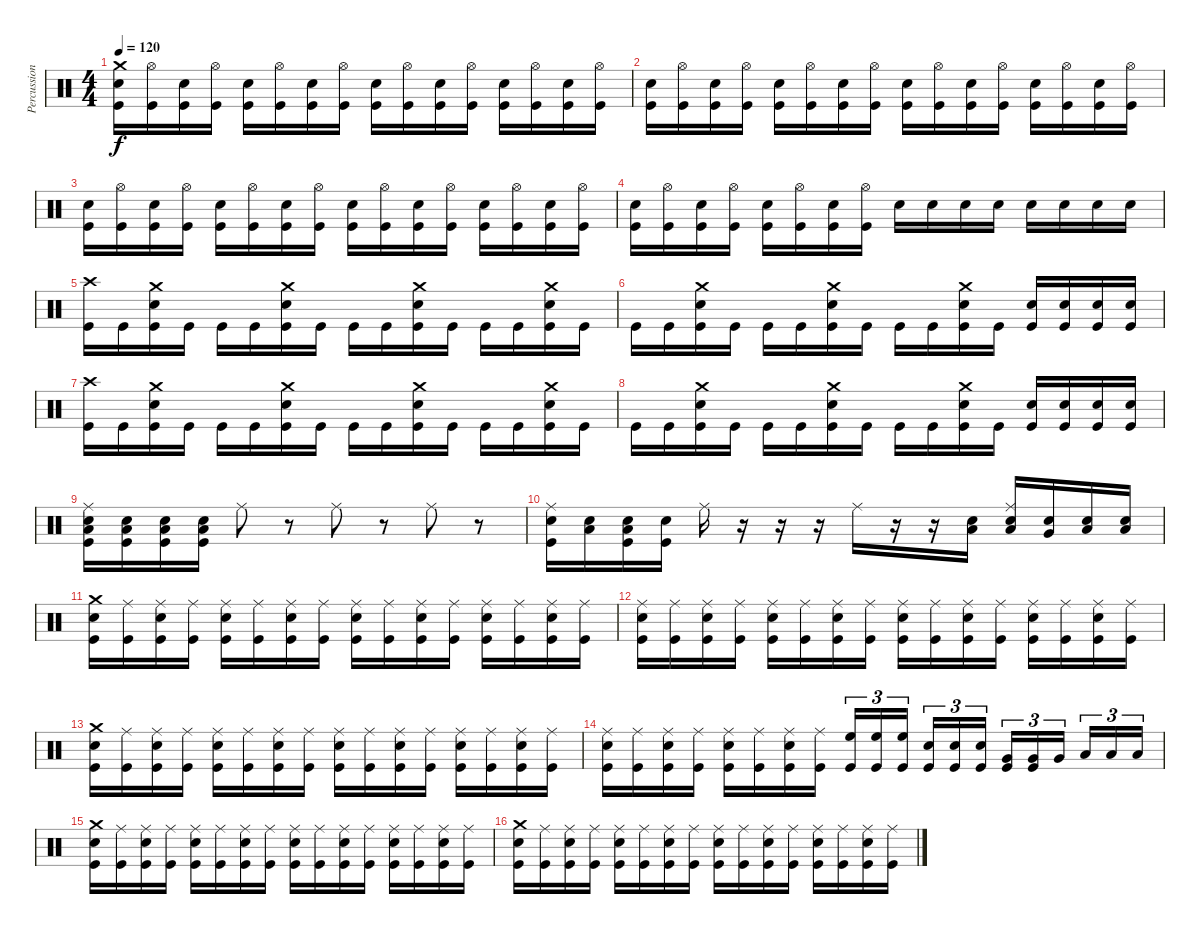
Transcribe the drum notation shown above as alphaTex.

\track ("Percussions" "Percussion") {instrument percussion}
\staff {score}
\articulation defaults
\ts (4 4)
\tempo 120
\clef neutral
\ks c
("Crash medium (hit)" "Electric Snare (hit)" "Kick (hit)").16{dy f} ("Hi-Hat (open)" "Kick (hit)").16 ("Electric Snare (hit)" "Kick (hit)").16 ("Hi-Hat (open)" "Kick (hit)").16 ("Electric Snare (hit)" "Kick (hit)").16 ("Hi-Hat (open)" "Kick (hit)").16 ("Electric Snare (hit)" "Kick (hit)").16 ("Hi-Hat (open)" "Kick (hit)").16 ("Electric Snare (hit)" "Kick (hit)").16 ("Hi-Hat (open)" "Kick (hit)").16 ("Electric Snare (hit)" "Kick (hit)").16 ("Hi-Hat (open)" "Kick (hit)").16 ("Electric Snare (hit)" "Kick (hit)").16 ("Hi-Hat (open)" "Kick (hit)").16 ("Electric Snare (hit)" "Kick (hit)").16 ("Hi-Hat (open)" "Kick (hit)").16 |
("Electric Snare (hit)" "Kick (hit)").16 ("Hi-Hat (open)" "Kick (hit)").16 ("Electric Snare (hit)" "Kick (hit)").16 ("Hi-Hat (open)" "Kick (hit)").16 ("Electric Snare (hit)" "Kick (hit)").16 ("Hi-Hat (open)" "Kick (hit)").16 ("Electric Snare (hit)" "Kick (hit)").16 ("Hi-Hat (open)" "Kick (hit)").16 ("Electric Snare (hit)" "Kick (hit)").16 ("Hi-Hat (open)" "Kick (hit)").16 ("Electric Snare (hit)" "Kick (hit)").16 ("Hi-Hat (open)" "Kick (hit)").16 ("Electric Snare (hit)" "Kick (hit)").16 ("Hi-Hat (open)" "Kick (hit)").16 ("Electric Snare (hit)" "Kick (hit)").16 ("Hi-Hat (open)" "Kick (hit)").16 |
("Electric Snare (hit)" "Kick (hit)").16 ("Hi-Hat (open)" "Kick (hit)").16 ("Electric Snare (hit)" "Kick (hit)").16 ("Hi-Hat (open)" "Kick (hit)").16 ("Electric Snare (hit)" "Kick (hit)").16 ("Hi-Hat (open)" "Kick (hit)").16 ("Electric Snare (hit)" "Kick (hit)").16 ("Hi-Hat (open)" "Kick (hit)").16 ("Electric Snare (hit)" "Kick (hit)").16 ("Hi-Hat (open)" "Kick (hit)").16 ("Electric Snare (hit)" "Kick (hit)").16 ("Hi-Hat (open)" "Kick (hit)").16 ("Electric Snare (hit)" "Kick (hit)").16 ("Hi-Hat (open)" "Kick (hit)").16 ("Electric Snare (hit)" "Kick (hit)").16 ("Hi-Hat (open)" "Kick (hit)").16 |
("Electric Snare (hit)" "Kick (hit)").16 ("Hi-Hat (open)" "Kick (hit)").16 ("Electric Snare (hit)" "Kick (hit)").16 ("Hi-Hat (open)" "Kick (hit)").16 ("Electric Snare (hit)" "Kick (hit)").16 ("Hi-Hat (open)" "Kick (hit)").16 ("Electric Snare (hit)" "Kick (hit)").16 ("Hi-Hat (open)" "Kick (hit)").16 "Electric Snare (hit)".16 "Electric Snare (hit)".16 "Electric Snare (hit)".16 "Electric Snare (hit)".16 "Electric Snare (hit)".16 "Electric Snare (hit)".16 "Electric Snare (hit)".16 "Electric Snare (hit)".16 |
("Crash high (hit)" "Kick (hit)").16 "Kick (hit)".16 ("Crash medium (hit)" "Electric Snare (hit)" "Kick (hit)").16 "Kick (hit)".16 "Kick (hit)".16 "Kick (hit)".16 ("Crash medium (hit)" "Electric Snare (hit)" "Kick (hit)").16 "Kick (hit)".16 "Kick (hit)".16 "Kick (hit)".16 ("Crash medium (hit)" "Electric Snare (hit)" "Kick (hit)").16 "Kick (hit)".16 "Kick (hit)".16 "Kick (hit)".16 ("Crash medium (hit)" "Electric Snare (hit)" "Kick (hit)").16 "Kick (hit)".16 |
"Kick (hit)".16 "Kick (hit)".16 ("Crash medium (hit)" "Electric Snare (hit)" "Kick (hit)").16 "Kick (hit)".16 "Kick (hit)".16 "Kick (hit)".16 ("Crash medium (hit)" "Electric Snare (hit)" "Kick (hit)").16 "Kick (hit)".16 "Kick (hit)".16 "Kick (hit)".16 ("Crash medium (hit)" "Electric Snare (hit)" "Kick (hit)").16 "Kick (hit)".16 ("Electric Snare (hit)" "Kick (hit)").16 ("Electric Snare (hit)" "Kick (hit)").16 ("Electric Snare (hit)" "Kick (hit)").16 ("Electric Snare (hit)" "Kick (hit)").16 |
("Crash high (hit)" "Kick (hit)").16 "Kick (hit)".16 ("Crash medium (hit)" "Electric Snare (hit)" "Kick (hit)").16 "Kick (hit)".16 "Kick (hit)".16 "Kick (hit)".16 ("Crash medium (hit)" "Electric Snare (hit)" "Kick (hit)").16 "Kick (hit)".16 "Kick (hit)".16 "Kick (hit)".16 ("Crash medium (hit)" "Electric Snare (hit)" "Kick (hit)").16 "Kick (hit)".16 "Kick (hit)".16 "Kick (hit)".16 ("Crash medium (hit)" "Electric Snare (hit)" "Kick (hit)").16 "Kick (hit)".16 |
"Kick (hit)".16 "Kick (hit)".16 ("Crash medium (hit)" "Electric Snare (hit)" "Kick (hit)").16 "Kick (hit)".16 "Kick (hit)".16 "Kick (hit)".16 ("Crash medium (hit)" "Electric Snare (hit)" "Kick (hit)").16 "Kick (hit)".16 "Kick (hit)".16 "Kick (hit)".16 ("Crash medium (hit)" "Electric Snare (hit)" "Kick (hit)").16 "Kick (hit)".16 ("Electric Snare (hit)" "Kick (hit)").16 ("Electric Snare (hit)" "Kick (hit)").16 ("Electric Snare (hit)" "Kick (hit)").16 ("Electric Snare (hit)" "Kick (hit)").16 |
("Ride (middle)" "Kick (hit)" "Low Floor Tom (hit)" "Electric Snare (hit)").16 ("Kick (hit)" "Low Floor Tom (hit)" "Electric Snare (hit)").16 ("Kick (hit)" "Low Floor Tom (hit)" "Electric Snare (hit)").16 ("Kick (hit)" "Low Floor Tom (hit)" "Electric Snare (hit)").16 "Ride (middle)".8 r.8 "Ride (middle)".8 r.8 "Ride (middle)".8 r.8 |
("Ride (middle)" "Kick (hit)" "Electric Snare (hit)").16 ("Low Floor Tom (hit)" "Electric Snare (hit)").16 ("Kick (hit)" "Low Floor Tom (hit)" "Electric Snare (hit)").16 ("Kick (hit)" "Electric Snare (hit)").16 "Ride (middle)".16 r.16 r.16 r.16 "Ride (middle)".16 r.16 r.16 ("Low Tom (hit)" "Electric Snare (hit)").16 ("Ride (middle)" "Low Tom (hit)" "Electric Snare (hit)").16 ("Very Low Tom (hit)" "Electric Snare (hit)").16 ("Low Floor Tom (hit)" "Electric Snare (hit)").16 ("Low Floor Tom (hit)" "Electric Snare (hit)").16 |
("Crash medium (hit)" "Electric Snare (hit)" "Kick (hit)").16 ("Ride (middle)" "Kick (hit)").16 ("Ride (middle)" "Electric Snare (hit)" "Kick (hit)").16 ("Ride (middle)" "Kick (hit)").16 ("Ride (middle)" "Electric Snare (hit)" "Kick (hit)").16 ("Ride (middle)" "Kick (hit)").16 ("Ride (middle)" "Electric Snare (hit)" "Kick (hit)").16 ("Ride (middle)" "Kick (hit)").16 ("Ride (middle)" "Electric Snare (hit)" "Kick (hit)").16 ("Ride (middle)" "Kick (hit)").16 ("Ride (middle)" "Electric Snare (hit)" "Kick (hit)").16 ("Ride (middle)" "Kick (hit)").16 ("Ride (middle)" "Electric Snare (hit)" "Kick (hit)").16 ("Ride (middle)" "Kick (hit)").16 ("Ride (middle)" "Electric Snare (hit)" "Kick (hit)").16 ("Ride (middle)" "Kick (hit)").16 |
("Ride (middle)" "Electric Snare (hit)" "Kick (hit)").16 ("Ride (middle)" "Kick (hit)").16 ("Ride (middle)" "Electric Snare (hit)" "Kick (hit)").16 ("Ride (middle)" "Kick (hit)").16 ("Ride (middle)" "Electric Snare (hit)" "Kick (hit)").16 ("Ride (middle)" "Kick (hit)").16 ("Ride (middle)" "Electric Snare (hit)" "Kick (hit)").16 ("Ride (middle)" "Kick (hit)").16 ("Ride (middle)" "Electric Snare (hit)" "Kick (hit)").16 ("Ride (middle)" "Kick (hit)").16 ("Ride (middle)" "Electric Snare (hit)" "Kick (hit)").16 ("Ride (middle)" "Kick (hit)").16 ("Ride (middle)" "Electric Snare (hit)" "Kick (hit)").16 ("Ride (middle)" "Kick (hit)").16 ("Ride (middle)" "Electric Snare (hit)" "Kick (hit)").16 ("Ride (middle)" "Kick (hit)").16 |
("Crash medium (hit)" "Electric Snare (hit)" "Kick (hit)").16 ("Ride (middle)" "Kick (hit)").16 ("Ride (middle)" "Electric Snare (hit)" "Kick (hit)").16 ("Ride (middle)" "Kick (hit)").16 ("Ride (middle)" "Electric Snare (hit)" "Kick (hit)").16 ("Ride (middle)" "Kick (hit)").16 ("Ride (middle)" "Electric Snare (hit)" "Kick (hit)").16 ("Ride (middle)" "Kick (hit)").16 ("Ride (middle)" "Electric Snare (hit)" "Kick (hit)").16 ("Ride (middle)" "Kick (hit)").16 ("Ride (middle)" "Electric Snare (hit)" "Kick (hit)").16 ("Ride (middle)" "Kick (hit)").16 ("Ride (middle)" "Electric Snare (hit)" "Kick (hit)").16 ("Ride (middle)" "Kick (hit)").16 ("Ride (middle)" "Electric Snare (hit)" "Kick (hit)").16 ("Ride (middle)" "Kick (hit)").16 |
("Ride (middle)" "Electric Snare (hit)" "Kick (hit)").16 ("Ride (middle)" "Kick (hit)").16 ("Ride (middle)" "Electric Snare (hit)" "Kick (hit)").16 ("Ride (middle)" "Kick (hit)").16 ("Ride (middle)" "Electric Snare (hit)" "Kick (hit)").16 ("Ride (middle)" "Kick (hit)").16 ("Ride (middle)" "Electric Snare (hit)" "Kick (hit)").16 ("Ride (middle)" "Kick (hit)").16 ("High Floor Tom (hit)" "Kick (hit)").16{tu (3 2)} ("High Floor Tom (hit)" "Kick (hit)").16{tu (3 2)} ("High Floor Tom (hit)" "Kick (hit)").16{tu (3 2)} ("Electric Snare (hit)" "Kick (hit)").16{tu (3 2)} ("Electric Snare (hit)" "Kick (hit)").16{tu (3 2)} ("Electric Snare (hit)" "Kick (hit)").16{tu (3 2)} ("Very Low Tom (hit)" "Kick (hit)").16{tu (3 2)} ("Very Low Tom (hit)" "Kick (hit)").16{tu (3 2)} "Very Low Tom (hit)".16{tu (3 2)} "Low Floor Tom (hit)".16{tu (3 2)} "Low Floor Tom (hit)".16{tu (3 2)} "Low Floor Tom (hit)".16{tu (3 2)} |
("Crash medium (hit)" "Electric Snare (hit)" "Kick (hit)").16 ("Ride (middle)" "Kick (hit)").16 ("Ride (middle)" "Electric Snare (hit)" "Kick (hit)").16 ("Ride (middle)" "Kick (hit)").16 ("Ride (middle)" "Electric Snare (hit)" "Kick (hit)").16 ("Ride (middle)" "Kick (hit)").16 ("Ride (middle)" "Electric Snare (hit)" "Kick (hit)").16 ("Ride (middle)" "Kick (hit)").16 ("Ride (middle)" "Electric Snare (hit)" "Kick (hit)").16 ("Ride (middle)" "Kick (hit)").16 ("Ride (middle)" "Electric Snare (hit)" "Kick (hit)").16 ("Ride (middle)" "Kick (hit)").16 ("Ride (middle)" "Electric Snare (hit)" "Kick (hit)").16 ("Ride (middle)" "Kick (hit)").16 ("Ride (middle)" "Electric Snare (hit)" "Kick (hit)").16 ("Ride (middle)" "Kick (hit)").16 |
("Crash medium (hit)" "Electric Snare (hit)" "Kick (hit)").16 ("Ride (middle)" "Kick (hit)").16 ("Ride (middle)" "Electric Snare (hit)" "Kick (hit)").16 ("Ride (middle)" "Kick (hit)").16 ("Ride (middle)" "Electric Snare (hit)" "Kick (hit)").16 ("Ride (middle)" "Kick (hit)").16 ("Ride (middle)" "Electric Snare (hit)" "Kick (hit)").16 ("Ride (middle)" "Kick (hit)").16 ("Ride (middle)" "Electric Snare (hit)" "Kick (hit)").16 ("Ride (middle)" "Kick (hit)").16 ("Ride (middle)" "Electric Snare (hit)" "Kick (hit)").16 ("Ride (middle)" "Kick (hit)").16 ("Ride (middle)" "Electric Snare (hit)" "Kick (hit)").16 ("Ride (middle)" "Kick (hit)").16 ("Ride (middle)" "Electric Snare (hit)" "Kick (hit)").16 ("Ride (middle)" "Kick (hit)").16
